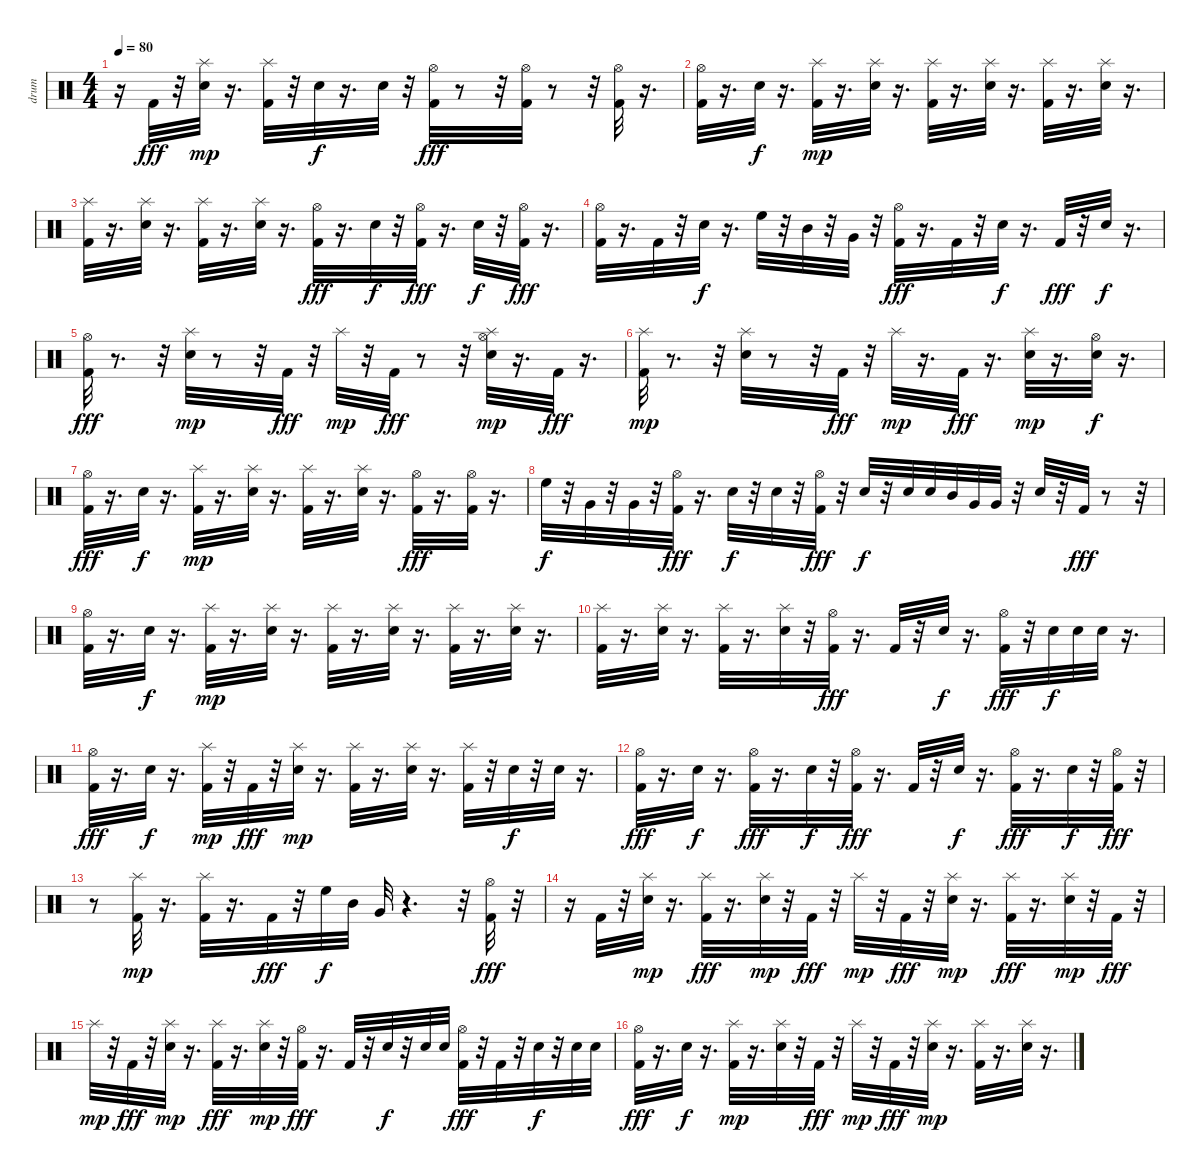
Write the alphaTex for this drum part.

\track ("drum" "drum") {instrument percussion}
\staff {score}
\articulation defaults
\ts (4 4)
\tempo 80
\clef neutral
\ks c
r.16{dy fff} "Kick (hit) 2".32 r.32 ("Snare (hit) 2" "Splash (hit)").32{dy mp} r.16{d} ("Kick (hit) 2" "Splash (hit)").32 r.32 "Snare (hit) 2".32{dy f} r.16{d} "Snare (hit) 2".32 r.32 ("Kick (hit) 2" "Hi-Hat (open)").32{dy fff} r.8 r.32 ("Kick (hit) 2" "Hi-Hat (open)").32 r.8 r.32 ("Kick (hit) 2" "Hi-Hat (open)").32 r.16{d} |
("Kick (hit) 2" "Hi-Hat (open)").32 r.16{d} "Snare (hit) 2".32{dy f} r.16{d} ("Kick (hit) 2" "Splash (hit)").32{dy mp} r.16{d} ("Snare (hit) 2" "Splash (hit)").32 r.16{d} ("Kick (hit) 2" "Splash (hit)").32 r.16{d} ("Snare (hit) 2" "Splash (hit)").32 r.16{d} ("Kick (hit) 2" "Splash (hit)").32 r.16{d} ("Snare (hit) 2" "Splash (hit)").32 r.16{d} |
("Kick (hit) 2" "Splash (hit)").32 r.16{d} ("Splash (hit)" "Snare (hit) 2").32 r.16{d} ("Kick (hit) 2" "Splash (hit)").32 r.16{d} ("Splash (hit)" "Snare (hit) 2").32 r.16{d} ("Kick (hit) 2" "Hi-Hat (open)").32{dy fff} r.16{d} "Snare (hit) 2".32{dy f} r.32 ("Kick (hit) 2" "Hi-Hat (open)").32{dy fff} r.16{d} "Snare (hit) 2".32{dy f} r.32 ("Kick (hit) 2" "Hi-Hat (open)").32{dy fff} r.16{d} |
("Hi-Hat (open)" "Kick (hit) 2").32 r.16{d} "Kick (hit) 2".32 r.32 "Snare (hit) 2".32{dy f} r.16{d} "High Floor Tom (hit)".32 r.32 "Mid Tom (hit)".32 r.32 "Very Low Tom (hit)".32 r.32 ("Hi-Hat (open)" "Kick (hit) 2").32{dy fff} r.16{d} "Kick (hit) 2".32 r.32 "Snare (hit) 2".32{dy f} r.16{d} "Kick (hit) 2".32{dy fff} r.32 "Snare (hit) 2".32{dy f} r.16{d} |
("Kick (hit) 2" "Hi-Hat (open)").32{dy fff} r.8{d} r.32 ("Snare (hit) 2" "Splash (hit)").32{dy mp} r.8 r.32 "Kick (hit) 2".32{dy fff} r.32 "Splash (hit)".32{dy mp} r.32 "Kick (hit) 2".32{dy fff} r.8 r.32 ("Snare (hit) 2" "Hi-Hat (open)" "Splash (hit)").32{dy mp} r.16{d} "Kick (hit) 2".32{dy fff} r.16{d} |
("Kick (hit) 2" "Splash (hit)").32{dy mp} r.8{d} r.32 ("Snare (hit) 2" "Splash (hit)").32 r.8 r.32 "Kick (hit) 2".32{dy fff} r.32 "Splash (hit)".32{dy mp} r.16{d} "Kick (hit) 2".32{dy fff} r.16{d} ("Snare (hit) 2" "Splash (hit)").32{dy mp} r.16{d} ("Snare (hit) 2" "Hi-Hat (open)").32{dy f} r.16{d} |
("Hi-Hat (open)" "Kick (hit) 2").32{dy fff} r.16{d} "Snare (hit) 2".32{dy f} r.16{d} ("Kick (hit) 2" "Splash (hit)").32{dy mp} r.16{d} ("Snare (hit) 2" "Splash (hit)").32 r.16{d} ("Kick (hit) 2" "Splash (hit)").32 r.16{d} ("Snare (hit) 2" "Splash (hit)").32 r.16{d} ("Hi-Hat (open)" "Kick (hit) 2").32{dy fff} r.16{d} ("Hi-Hat (open)" "Kick (hit) 2").32 r.16{d} |
"High Floor Tom (hit)".32{dy f} r.32 "Very Low Tom (hit)".32 r.32 "Very Low Tom (hit)".32 r.32 ("Kick (hit) 2" "Hi-Hat (open)").32{dy fff} r.16{d} "Snare (hit) 2".32{dy f} r.32 "Snare (hit) 2".32 r.32 ("Hi-Hat (open)" "Kick (hit) 2").32{dy fff} r.32 "Snare (hit) 2".32{dy f} r.32 "Snare (hit) 2".32 "Snare (hit) 2".32 "Mid Tom (hit)".32 "Very Low Tom (hit)".32 "Very Low Tom (hit)".32 r.32 "Snare (hit) 2".32 r.32 "Kick (hit) 2".32{dy fff} r.8 r.32 |
("Kick (hit) 2" "Hi-Hat (open)").32 r.16{d} "Snare (hit) 2".32{dy f} r.16{d} ("Kick (hit) 2" "Splash (hit)").32{dy mp} r.16{d} ("Splash (hit)" "Snare (hit) 2").32 r.16{d} ("Kick (hit) 2" "Splash (hit)").32 r.16{d} ("Splash (hit)" "Snare (hit) 2").32 r.16{d} ("Kick (hit) 2" "Splash (hit)").32 r.16{d} ("Splash (hit)" "Snare (hit) 2").32 r.16{d} |
("Kick (hit) 2" "Splash (hit)").32 r.16{d} ("Snare (hit) 2" "Splash (hit)").32 r.16{d} ("Kick (hit) 2" "Splash (hit)").32 r.16{d} ("Snare (hit) 2" "Splash (hit)").32 r.32 ("Kick (hit) 2" "Hi-Hat (open)").32{dy fff} r.16{d} "Kick (hit) 2".32 r.32 "Snare (hit) 2".32{dy f} r.16{d} ("Kick (hit) 2" "Hi-Hat (open)").32{dy fff} r.32 "Snare (hit) 2".32{dy f} "Snare (hit) 2".32 "Snare (hit) 2".32 r.16{d} |
("Kick (hit) 2" "Hi-Hat (open)").32{dy fff} r.16{d} "Snare (hit) 2".32{dy f} r.16{d} ("Kick (hit) 2" "Splash (hit)").32{dy mp} r.32 "Kick (hit) 2".32{dy fff} r.32 ("Snare (hit) 2" "Splash (hit)").32{dy mp} r.16{d} ("Kick (hit) 2" "Splash (hit)").32 r.16{d} ("Snare (hit) 2" "Splash (hit)").32 r.16{d} ("Kick (hit) 2" "Splash (hit)").32 r.32 "Snare (hit) 2".32{dy f} r.32 "Snare (hit) 2".32 r.16{d} |
("Kick (hit) 2" "Hi-Hat (open)").32{dy fff} r.16{d} "Snare (hit) 2".32{dy f} r.16{d} ("Kick (hit) 2" "Hi-Hat (open)").32{dy fff} r.16{d} "Snare (hit) 2".32{dy f} r.32 ("Hi-Hat (open)" "Kick (hit) 2").32{dy fff} r.16{d} "Kick (hit) 2".32 r.32 "Snare (hit) 2".32{dy f} r.16{d} ("Kick (hit) 2" "Hi-Hat (open)").32{dy fff} r.16{d} "Snare (hit) 2".32{dy f} r.32 ("Kick (hit) 2" "Hi-Hat (open)").32{dy fff} r.32 |
r.8 ("Kick (hit) 2" "Splash (hit)").32{dy mp} r.16{d} ("Kick (hit) 2" "Splash (hit)").32 r.16{d} "Kick (hit) 2".32{dy fff} r.32 "High Floor Tom (hit)".32{dy f} "Mid Tom (hit)".32 "Very Low Tom (hit)".32 r.4{d} r.32 ("Kick (hit) 2" "Hi-Hat (open)").32{dy fff} r.32 |
r.16 "Kick (hit) 2".32 r.32 ("Splash (hit)" "Snare (hit) 2").32{dy mp} r.16{d} ("Splash (hit)" "Kick (hit) 2").32{dy fff} r.16{d} ("Splash (hit)" "Snare (hit) 2").32{dy mp} r.32 "Kick (hit) 2".32{dy fff} r.32 "Splash (hit)".32{dy mp} r.32 "Kick (hit) 2".32{dy fff} r.32 ("Splash (hit)" "Snare (hit) 2").32{dy mp} r.16{d} ("Splash (hit)" "Kick (hit) 2").32{dy fff} r.16{d} ("Splash (hit)" "Snare (hit) 2").32{dy mp} r.32 "Kick (hit) 2".32{dy fff} r.32 |
"Splash (hit)".32{dy mp} r.32 "Kick (hit) 2".32{dy fff} r.32 ("Splash (hit)" "Snare (hit) 2").32{dy mp} r.16{d} ("Splash (hit)" "Kick (hit) 2").32{dy fff} r.16{d} ("Snare (hit) 2" "Splash (hit)").32{dy mp} r.32 ("Kick (hit) 2" "Hi-Hat (open)").32{dy fff} r.16{d} "Kick (hit) 2".32 r.32 "Snare (hit) 2".32{dy f} r.32 "Snare (hit) 2".32 "Snare (hit) 2".32 ("Kick (hit) 2" "Hi-Hat (open)").32{dy fff} r.32 "Kick (hit) 2".32 r.32 "Snare (hit) 2".32{dy f} r.32 "Snare (hit) 2".32 "Snare (hit) 2".32 |
("Hi-Hat (open)" "Kick (hit) 2").32{dy fff} r.16{d} "Snare (hit) 2".32{dy f} r.16{d} ("Kick (hit) 2" "Splash (hit)").32{dy mp} r.16{d} ("Snare (hit) 2" "Splash (hit)").32 r.32 "Kick (hit) 2".32{dy fff} r.32 "Splash (hit)".32{dy mp} r.32 "Kick (hit) 2".32{dy fff} r.32 ("Snare (hit) 2" "Splash (hit)").32{dy mp} r.16{d} ("Kick (hit) 2" "Splash (hit)").32 r.16{d} ("Snare (hit) 2" "Splash (hit)").32 r.16{d}
